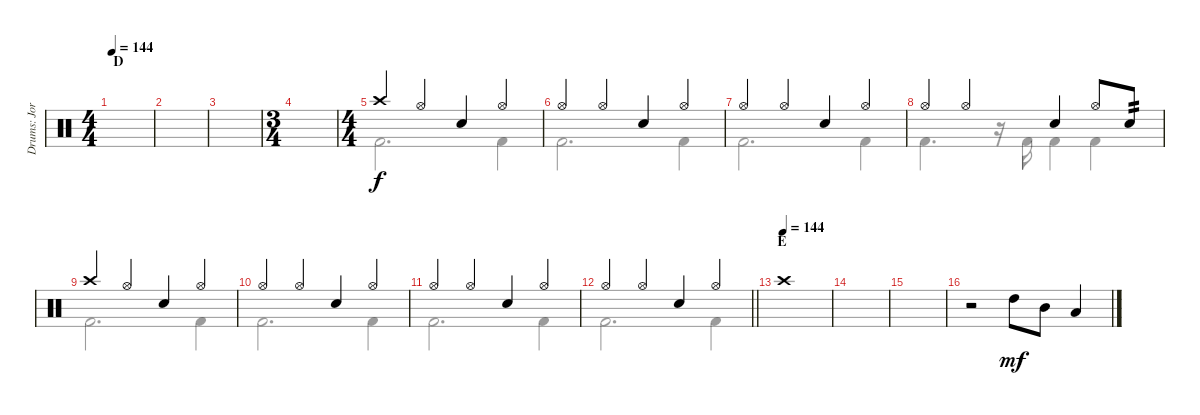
\track ("Drums: Jorg" "Drums: Jor") {instrument percussion}
\staff {score}
\articulation defaults
\voice
\ts (4 4)
\section ("" "D")
\tempo 144
\clef neutral
\ks c
|
|
|
\ts (3 4)
|
\ts (4 4)
"Crash high (hit)".4 "Hi-Hat (open)".4 "Snare (hit) 2".4 "Hi-Hat (open)".4 |
"Hi-Hat (open)".4 "Hi-Hat (open)".4 "Snare (hit) 2".4 "Hi-Hat (open)".4 |
"Hi-Hat (open)".4 "Hi-Hat (open)".4 "Snare (hit) 2".4 "Hi-Hat (open)".4 |
"Hi-Hat (open)".4 "Hi-Hat (open)".4 "Snare (hit) 2".4 "Hi-Hat (open)".8 "Electric Snare (hit)".8{tp 2} |
"Crash high (hit)".4 "Hi-Hat (open)".4 "Snare (hit) 2".4 "Hi-Hat (open)".4 |
"Hi-Hat (open)".4 "Hi-Hat (open)".4 "Snare (hit) 2".4 "Hi-Hat (open)".4 |
"Hi-Hat (open)".4 "Hi-Hat (open)".4 "Snare (hit) 2".4 "Hi-Hat (open)".4 |
\barLineRight lightlight "Hi-Hat (open)".4 "Hi-Hat (open)".4 "Snare (hit) 2".4 "Hi-Hat (open)".4
|
\section ("" "E")
\tempo (144)
"Crash high (hit)".1 |
|
|
r.2 "High Tom (hit)".8{dy mf} "Mid Tom (hit)".8 "Low Tom (hit)".4
\voice
\clef neutral
\ottava regular
\simile none
\ks c
|
|
|
|
"Kick (hit) 2".2{d dy f} "Kick (hit) 2".4 |
"Kick (hit) 2".2{d} "Kick (hit) 2".4 |
"Kick (hit) 2".2{d} "Kick (hit) 2".4 |
"Kick (hit) 2".4{d} r.16 "Kick (hit) 2".16 "Kick (hit) 2".4 "Kick (hit) 2".4 |
"Kick (hit) 2".2{d} "Kick (hit) 2".4 |
"Kick (hit) 2".2{d} "Kick (hit) 2".4 |
"Kick (hit) 2".2{d} "Kick (hit) 2".4 |
\barLineRight lightlight "Kick (hit) 2".2{d} "Kick (hit) 2".4
|
|
|
|
